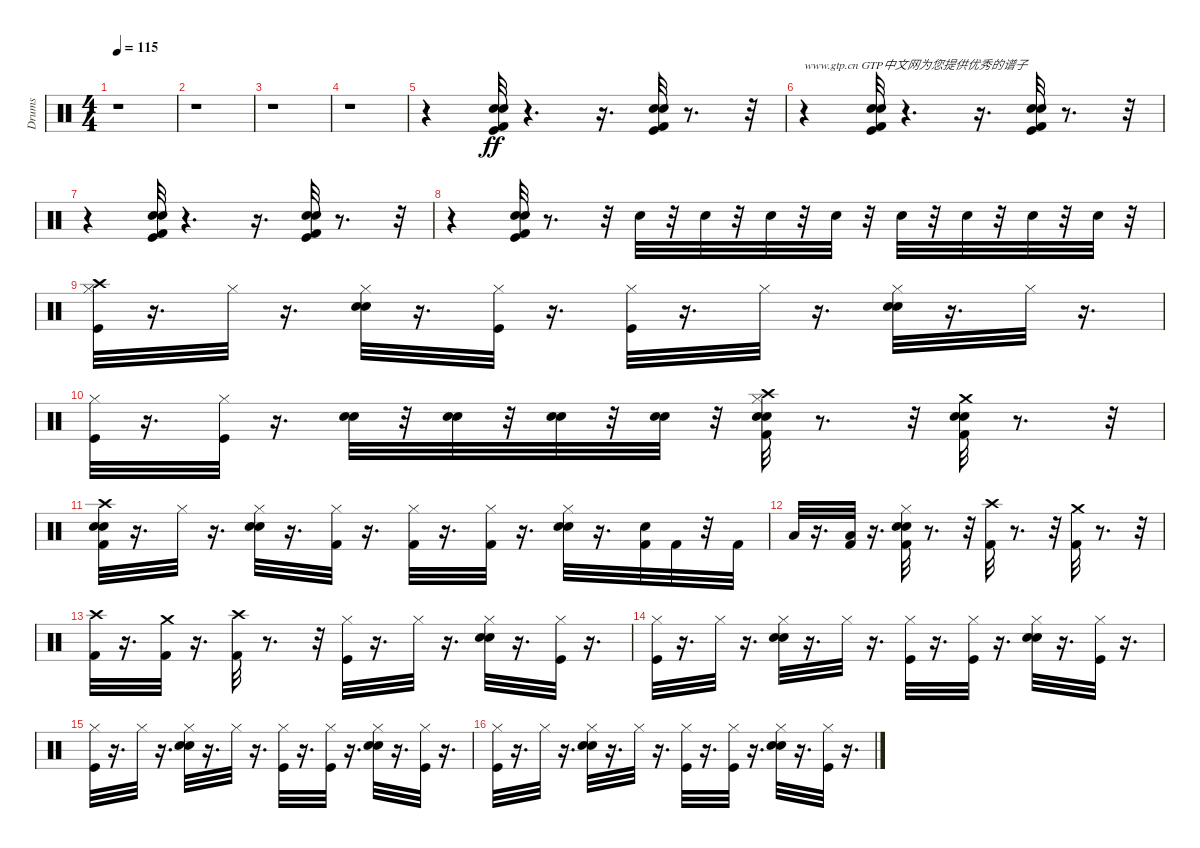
\track ("Drums" "Drums") {instrument percussion}
\staff {score}
\articulation defaults
\ts (4 4)
\tempo 115
\clef neutral
\ks c
r.1{dy ff} |
r.1 |
r.1 |
r.1 |
r.4 ("Electric Snare (hit)" "Snare (hit) 2" "Kick (hit) 2" "Kick (hit)").32 r.4{d} r.16{d} ("Electric Snare (hit)" "Snare (hit) 2" "Kick (hit) 2" "Kick (hit)").32 r.8{d} r.32 |
r.4{txt "www.gtp.cn GTP中文网为您提供优秀的谱子"} ("Electric Snare (hit)" "Snare (hit) 2" "Kick (hit) 2" "Kick (hit)").32 r.4{d} r.16{d} ("Electric Snare (hit)" "Snare (hit) 2" "Kick (hit) 2" "Kick (hit)").32 r.8{d} r.32 |
r.4 ("Electric Snare (hit)" "Snare (hit) 2" "Kick (hit) 2" "Kick (hit)").32 r.4{d} r.16{d} ("Electric Snare (hit)" "Snare (hit) 2" "Kick (hit) 2" "Kick (hit)").32 r.8{d} r.32 |
r.4 ("Electric Snare (hit)" "Snare (hit) 2" "Kick (hit) 2" "Kick (hit)").32 r.8{d} r.32 "Snare (hit) 2".32 r.32 "Snare (hit) 2".32 r.32 "Snare (hit) 2".32 r.32 "Snare (hit) 2".32 r.32 "Snare (hit) 2".32 r.32 "Snare (hit) 2".32 r.32 "Snare (hit) 2".32 r.32 "Snare (hit) 2".32 r.32 |
("Hi-Hat (closed)" "Kick (hit)" "Crash high (hit)").32 r.16{d} "Hi-Hat (closed)".32 r.16{d} ("Electric Snare (hit)" "Hi-Hat (closed)" "Snare (hit) 2").32 r.16{d} ("Kick (hit)" "Hi-Hat (closed)").32 r.16{d} ("Kick (hit)" "Hi-Hat (closed)").32 r.16{d} "Hi-Hat (closed)".32 r.16{d} ("Electric Snare (hit)" "Snare (hit) 2" "Hi-Hat (closed)").32 r.16{d} "Hi-Hat (closed)".32 r.16{d} |
("Kick (hit)" "Hi-Hat (closed)").32 r.16{d} ("Kick (hit)" "Hi-Hat (closed)").32 r.16{d} ("Electric Snare (hit)" "Snare (hit) 2").32 r.32 ("Electric Snare (hit)" "Snare (hit) 2").32 r.32 ("Electric Snare (hit)" "Snare (hit) 2").32 r.32 ("Electric Snare (hit)" "Snare (hit) 2").32 r.32 ("Electric Snare (hit)" "Snare (hit) 2" "Kick (hit) 2" "Crash high (hit)" "Hi-Hat (closed)").32 r.8{d} r.32 ("Electric Snare (hit)" "Kick (hit) 2" "Crash medium (hit)" "Snare (hit) 2").32 r.8{d} r.32 |
("Electric Snare (hit)" "Snare (hit) 2" "Kick (hit) 2" "Crash high (hit)").32 r.16{d} "Hi-Hat (closed)".32 r.16{d} ("Electric Snare (hit)" "Snare (hit) 2" "Hi-Hat (closed)").32 r.16{d} ("Kick (hit) 2" "Hi-Hat (closed)").32 r.16{d} ("Kick (hit) 2" "Hi-Hat (closed)").32 r.16{d} ("Kick (hit) 2" "Hi-Hat (closed)").32 r.16{d} ("Electric Snare (hit)" "Snare (hit) 2" "Hi-Hat (closed)").32 r.16{d} ("Electric Snare (hit)" "Kick (hit) 2").32 "Kick (hit) 2".32 r.32 "Kick (hit) 2".32 |
"Low Floor Tom (hit)".32 r.16{d} ("Kick (hit) 2" "Low Floor Tom (hit)").32 r.16{d} ("Electric Snare (hit)" "Hi-Hat (closed)" "Snare (hit) 2" "Kick (hit) 2").32 r.8{d} r.32 ("Kick (hit) 2" "Crash high (hit)").32 r.8{d} r.32 ("Kick (hit) 2" "Crash medium (hit)").32 r.8{d} r.32 |
("Kick (hit) 2" "Crash high (hit)").32 r.16{d} ("Kick (hit) 2" "Crash medium (hit)").32 r.16{d} ("Kick (hit) 2" "Crash high (hit)").32 r.8{d} r.32 ("Hi-Hat (closed)" "Kick (hit)").32 r.16{d} "Hi-Hat (closed)".32 r.16{d} ("Electric Snare (hit)" "Hi-Hat (closed)" "Snare (hit) 2").32 r.16{d} ("Kick (hit)" "Hi-Hat (closed)").32 r.16{d} |
("Kick (hit)" "Hi-Hat (closed)").32 r.16{d} "Hi-Hat (closed)".32 r.16{d} ("Electric Snare (hit)" "Snare (hit) 2" "Hi-Hat (closed)").32 r.16{d} "Hi-Hat (closed)".32 r.16{d} ("Kick (hit)" "Hi-Hat (closed)").32 r.16{d} ("Kick (hit)" "Hi-Hat (closed)").32 r.16{d} ("Electric Snare (hit)" "Hi-Hat (closed)" "Snare (hit) 2").32 r.16{d} ("Kick (hit)" "Hi-Hat (closed)").32 r.16{d} |
("Kick (hit)" "Hi-Hat (closed)").32 r.16{d} "Hi-Hat (closed)".32 r.16{d} ("Electric Snare (hit)" "Snare (hit) 2" "Hi-Hat (closed)").32 r.16{d} "Hi-Hat (closed)".32 r.16{d} ("Kick (hit)" "Hi-Hat (closed)").32 r.16{d} ("Kick (hit)" "Hi-Hat (closed)").32 r.16{d} ("Electric Snare (hit)" "Hi-Hat (closed)" "Snare (hit) 2").32 r.16{d} ("Kick (hit)" "Hi-Hat (closed)").32 r.16{d} |
("Kick (hit)" "Hi-Hat (closed)").32 r.16{d} "Hi-Hat (closed)".32 r.16{d} ("Electric Snare (hit)" "Snare (hit) 2" "Hi-Hat (closed)").32 r.16{d} "Hi-Hat (closed)".32 r.16{d} ("Kick (hit)" "Hi-Hat (closed)").32 r.16{d} ("Kick (hit)" "Hi-Hat (closed)").32 r.16{d} ("Electric Snare (hit)" "Hi-Hat (closed)" "Snare (hit) 2").32 r.16{d} ("Kick (hit)" "Hi-Hat (closed)").32 r.16{d}
